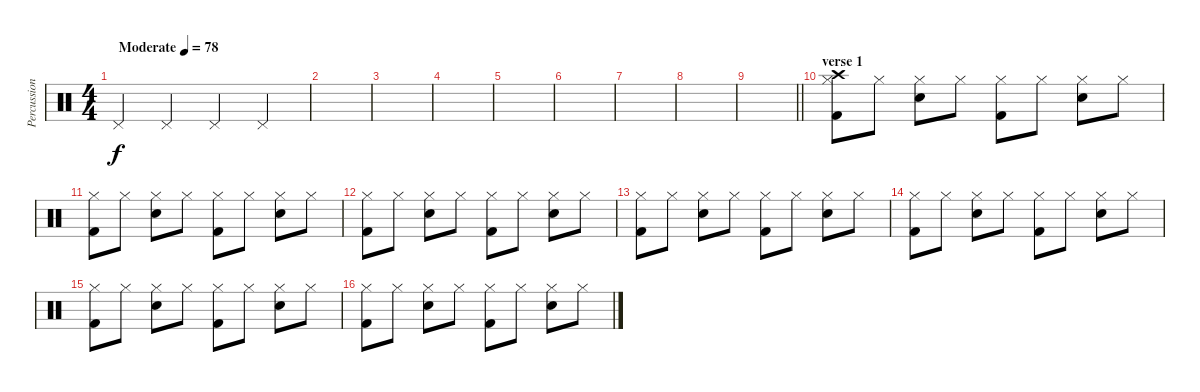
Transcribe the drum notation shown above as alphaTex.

\track ("Percussioni" "Percussion") {instrument percussion}
\staff {score}
\articulation defaults
\ts (4 4)
\tempo (78 "Moderate")
\clef neutral
\ks c "Pedal Hi-Hat (hit)".4{dy f} "Pedal Hi-Hat (hit)".4 "Pedal Hi-Hat (hit)".4 "Pedal Hi-Hat (hit)".4
|
|
|
|
|
|
|
|
\barLineRight lightlight
|
\section ("" "verse 1")
("Hi-Hat (closed)" "Kick (hit) 2" "Crash high (hit)").8 "Hi-Hat (closed)".8 ("Hi-Hat (closed)" "Snare (hit) 2").8 "Hi-Hat (closed)".8 ("Hi-Hat (closed)" "Kick (hit) 2").8 "Hi-Hat (closed)".8 ("Hi-Hat (closed)" "Snare (hit) 2").8 "Hi-Hat (closed)".8 |
("Hi-Hat (closed)" "Kick (hit) 2").8 "Hi-Hat (closed)".8 ("Hi-Hat (closed)" "Snare (hit) 2").8 "Hi-Hat (closed)".8 ("Hi-Hat (closed)" "Kick (hit) 2").8 "Hi-Hat (closed)".8 ("Hi-Hat (closed)" "Snare (hit) 2").8 "Hi-Hat (closed)".8 |
("Hi-Hat (closed)" "Kick (hit) 2").8 "Hi-Hat (closed)".8 ("Hi-Hat (closed)" "Snare (hit) 2").8 "Hi-Hat (closed)".8 ("Hi-Hat (closed)" "Kick (hit) 2").8 "Hi-Hat (closed)".8 ("Hi-Hat (closed)" "Snare (hit) 2").8 "Hi-Hat (closed)".8 |
("Hi-Hat (closed)" "Kick (hit) 2").8 "Hi-Hat (closed)".8 ("Hi-Hat (closed)" "Snare (hit) 2").8 "Hi-Hat (closed)".8 ("Hi-Hat (closed)" "Kick (hit) 2").8 "Hi-Hat (closed)".8 ("Hi-Hat (closed)" "Snare (hit) 2").8 "Hi-Hat (closed)".8 |
("Hi-Hat (closed)" "Kick (hit) 2").8 "Hi-Hat (closed)".8 ("Hi-Hat (closed)" "Snare (hit) 2").8 "Hi-Hat (closed)".8 ("Hi-Hat (closed)" "Kick (hit) 2").8 "Hi-Hat (closed)".8 ("Hi-Hat (closed)" "Snare (hit) 2").8 "Hi-Hat (closed)".8 |
("Hi-Hat (closed)" "Kick (hit) 2").8 "Hi-Hat (closed)".8 ("Hi-Hat (closed)" "Snare (hit) 2").8 "Hi-Hat (closed)".8 ("Hi-Hat (closed)" "Kick (hit) 2").8 "Hi-Hat (closed)".8 ("Hi-Hat (closed)" "Snare (hit) 2").8 "Hi-Hat (closed)".8 |
("Hi-Hat (closed)" "Kick (hit) 2").8 "Hi-Hat (closed)".8 ("Hi-Hat (closed)" "Snare (hit) 2").8 "Hi-Hat (closed)".8 ("Hi-Hat (closed)" "Kick (hit) 2").8 "Hi-Hat (closed)".8 ("Hi-Hat (closed)" "Snare (hit) 2").8 "Hi-Hat (closed)".8
